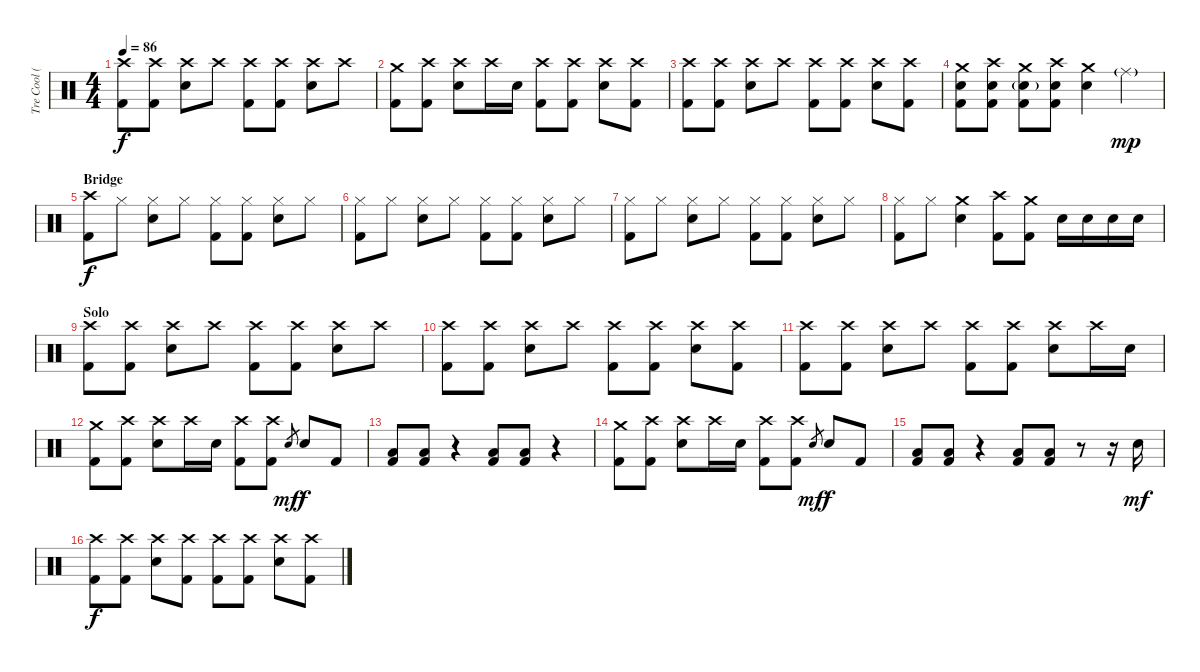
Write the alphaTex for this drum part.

\track ("Tre Cool (Drums)" "Tre Cool (") {instrument percussion}
\staff {score}
\articulation defaults
\ts (4 4)
\tempo 86
\clef neutral
\ks c
("Crash high (hit)" "Kick (hit) 2").8{dy f} ("Crash high (hit)" "Kick (hit) 2").8 ("Crash high (hit)" "Snare (hit) 2").8 "Crash high (hit)".8 ("Crash high (hit)" "Kick (hit) 2").8 ("Crash high (hit)" "Kick (hit) 2").8 ("Crash high (hit)" "Snare (hit) 2").8 "Crash high (hit)".8 |
("Crash medium (hit)" "Kick (hit) 2").8 ("Crash high (hit)" "Kick (hit) 2").8 ("Crash high (hit)" "Snare (hit) 2").8 "Crash high (hit)".16 "Snare (hit) 2".16 ("Crash high (hit)" "Kick (hit) 2").8 ("Crash high (hit)" "Kick (hit) 2").8 ("Crash high (hit)" "Snare (hit) 2").8 ("Crash high (hit)" "Kick (hit) 2").8 |
("Crash high (hit)" "Kick (hit) 2").8 ("Crash high (hit)" "Kick (hit) 2").8 ("Crash high (hit)" "Snare (hit) 2").8 "Crash high (hit)".8 ("Crash high (hit)" "Kick (hit) 2").8 ("Crash high (hit)" "Kick (hit) 2").8 ("Crash high (hit)" "Snare (hit) 2").8 ("Crash high (hit)" "Kick (hit) 2").8 |
("Crash medium (hit)" "Kick (hit) 2" "Snare (hit) 2").8 ("Crash high (hit)" "Kick (hit) 2" "Snare (hit) 2").8 ("Crash medium (hit)" "Snare (hit) 2"{g} "Kick (hit) 2").8 ("Crash high (hit)" "Snare (hit) 2" "Kick (hit) 2").8 ("Crash medium (hit)" "Snare (hit) 2").4 "Ride (middle)"{g}.4{dy mp} |
\section ("" "Bridge")
("Crash high (hit)" "Kick (hit) 2").8{dy f} "Hi-Hat (closed)".8 ("Hi-Hat (closed)" "Snare (hit) 2").8 "Hi-Hat (closed)".8 ("Hi-Hat (closed)" "Kick (hit) 2").8 ("Hi-Hat (closed)" "Kick (hit) 2").8 ("Hi-Hat (closed)" "Snare (hit) 2").8 "Hi-Hat (closed)".8 |
("Hi-Hat (closed)" "Kick (hit) 2").8 "Hi-Hat (closed)".8 ("Hi-Hat (closed)" "Snare (hit) 2").8 "Hi-Hat (closed)".8 ("Hi-Hat (closed)" "Kick (hit) 2").8 ("Hi-Hat (closed)" "Kick (hit) 2").8 ("Hi-Hat (closed)" "Snare (hit) 2").8 "Hi-Hat (closed)".8 |
("Hi-Hat (closed)" "Kick (hit) 2").8 "Hi-Hat (closed)".8 ("Hi-Hat (closed)" "Snare (hit) 2").8 "Hi-Hat (closed)".8 ("Hi-Hat (closed)" "Kick (hit) 2").8 ("Hi-Hat (closed)" "Kick (hit) 2").8 ("Hi-Hat (closed)" "Snare (hit) 2").8 "Hi-Hat (closed)".8 |
("Hi-Hat (closed)" "Kick (hit) 2").8 "Hi-Hat (closed)".8 ("Crash medium (hit)" "Snare (hit) 2").4 ("Crash high (hit)" "Kick (hit) 2").8 ("Crash medium (hit)" "Kick (hit) 2").8 "Snare (hit) 2".16 "Snare (hit) 2".16 "Snare (hit) 2".16 "Snare (hit) 2".16 |
\section ("" "Solo")
("Crash high (hit)" "Kick (hit) 2").8 ("Crash high (hit)" "Kick (hit) 2").8 ("Crash high (hit)" "Snare (hit) 2").8 "Crash high (hit)".8 ("Crash high (hit)" "Kick (hit) 2").8 ("Crash high (hit)" "Kick (hit) 2").8 ("Crash high (hit)" "Snare (hit) 2").8 "Crash high (hit)".8 |
("Crash high (hit)" "Kick (hit) 2").8 ("Crash high (hit)" "Kick (hit) 2").8 ("Crash high (hit)" "Snare (hit) 2").8 "Crash high (hit)".8 ("Crash high (hit)" "Kick (hit) 2").8 ("Crash high (hit)" "Kick (hit) 2").8 ("Crash high (hit)" "Snare (hit) 2").8 ("Crash high (hit)" "Kick (hit) 2").8 |
("Crash high (hit)" "Kick (hit) 2").8 ("Crash high (hit)" "Kick (hit) 2").8 ("Crash high (hit)" "Snare (hit) 2").8 "Crash high (hit)".8 ("Crash high (hit)" "Kick (hit) 2").8 ("Crash high (hit)" "Kick (hit) 2").8 ("Crash high (hit)" "Snare (hit) 2").8 "Crash high (hit)".16 "Snare (hit) 2".16 |
("Crash medium (hit)" "Kick (hit) 2").8 ("Crash high (hit)" "Kick (hit) 2").8 ("Crash high (hit)" "Snare (hit) 2").8 "Crash high (hit)".16 "Snare (hit) 2".16 ("Crash high (hit)" "Kick (hit) 2").8 ("Crash high (hit)" "Kick (hit) 2").8 "Snare (hit)".8{gr dy mf} "Snare (hit) 2".8{dy f} "Kick (hit) 2".8 |
("Low Tom (hit)" "Kick (hit) 2").8 ("Low Tom (hit)" "Kick (hit) 2").8 r.4 ("Low Tom (hit)" "Kick (hit) 2").8 ("Low Tom (hit)" "Kick (hit) 2").8 r.4 |
("Crash medium (hit)" "Kick (hit) 2").8 ("Crash high (hit)" "Kick (hit) 2").8 ("Crash high (hit)" "Snare (hit) 2").8 "Crash high (hit)".16 "Snare (hit) 2".16 ("Crash high (hit)" "Kick (hit) 2").8 ("Crash high (hit)" "Kick (hit) 2").8 "Snare (hit)".8{gr dy mf} "Snare (hit) 2".8{dy f} "Kick (hit) 2".8 |
("Low Tom (hit)" "Kick (hit) 2").8 ("Low Tom (hit)" "Kick (hit) 2").8 r.4 ("Low Tom (hit)" "Kick (hit) 2").8 ("Low Tom (hit)" "Kick (hit) 2").8 r.8 r.16 "Snare (hit) 2".16{dy mf} |
("Crash high (hit)" "Kick (hit) 2").8{dy f} ("Crash high (hit)" "Kick (hit) 2").8 ("Crash high (hit)" "Snare (hit) 2").8 ("Crash high (hit)" "Kick (hit) 2").8 ("Crash high (hit)" "Kick (hit) 2").8 ("Crash high (hit)" "Kick (hit) 2").8 ("Crash high (hit)" "Snare (hit) 2").8 ("Crash high (hit)" "Kick (hit) 2").8
